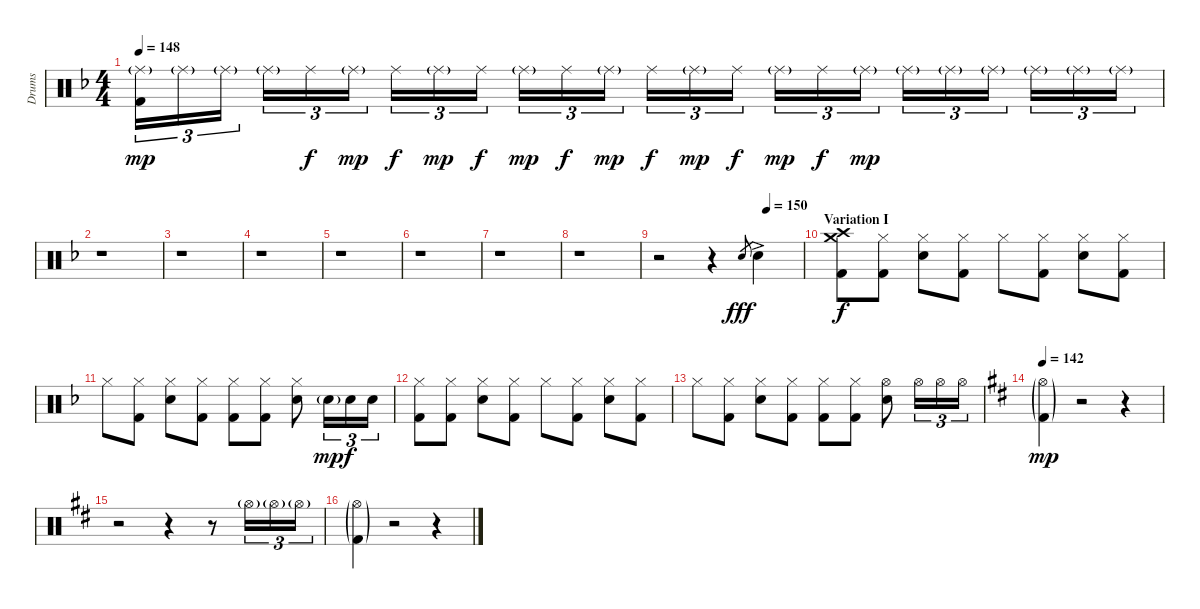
\track ("Drums" "Drums") {instrument percussion}
\staff {score}
\articulation defaults
\ts (4 4)
\tempo 148
\clef neutral
\ks dminor
("Ride (middle)"{g} "Kick (hit) 2").16{tu (3 2) dy mp} "Ride (middle)"{g}.16{tu (3 2)} "Ride (middle)"{g}.16{tu (3 2)} "Ride (middle)"{g}.16{tu (3 2)} "Ride (middle)".16{tu (3 2) dy f} "Ride (middle)"{g}.16{tu (3 2) dy mp} "Ride (middle)".16{tu (3 2) dy f} "Ride (middle)"{g}.16{tu (3 2) dy mp} "Ride (middle)".16{tu (3 2) dy f} "Ride (middle)"{g}.16{tu (3 2) dy mp} "Ride (middle)".16{tu (3 2) dy f} "Ride (middle)"{g}.16{tu (3 2) dy mp} "Ride (middle)".16{tu (3 2) dy f} "Ride (middle)"{g}.16{tu (3 2) dy mp} "Ride (middle)".16{tu (3 2) dy f} "Ride (middle)"{g}.16{tu (3 2) dy mp} "Ride (middle)".16{tu (3 2) dy f} "Ride (middle)"{g}.16{tu (3 2) dy mp} "Ride (middle)"{g}.16{tu (3 2)} "Ride (middle)"{g}.16{tu (3 2)} "Ride (middle)"{g}.16{tu (3 2)} "Ride (middle)"{g}.16{tu (3 2)} "Ride (middle)"{g}.16{tu (3 2)} "Ride (middle)"{g}.16{tu (3 2)} |
r.1 |
r.1 |
r.1 |
r.1 |
r.1 |
r.1 |
r.1 |
\tempo (150 0.75)
r.2{volume 14} r.4 "Snare (hit) 2".8{gr dy fff} "Snare (hit) 2"{ac}.4 |
\section ("" "Variation I")
("Crash high (hit)" "Crash medium (hit)" "Kick (hit) 2").8{dy f} ("Hi-Hat (closed)" "Kick (hit) 2").8 ("Hi-Hat (closed)" "Snare (hit) 2").8 ("Hi-Hat (closed)" "Kick (hit) 2").8 "Hi-Hat (closed)".8 ("Hi-Hat (closed)" "Kick (hit) 2").8 ("Hi-Hat (closed)" "Snare (hit) 2").8 ("Hi-Hat (closed)" "Kick (hit) 2").8 |
"Hi-Hat (closed)".8 ("Hi-Hat (closed)" "Kick (hit) 2").8 ("Hi-Hat (closed)" "Snare (hit) 2").8 ("Hi-Hat (closed)" "Kick (hit) 2").8 ("Hi-Hat (closed)" "Kick (hit) 2").8 ("Hi-Hat (closed)" "Kick (hit) 2").8 ("Hi-Hat (closed)" "Snare (hit) 2").8 "Snare (hit) 2"{g}.16{tu (3 2) dy mp} "Snare (hit) 2".16{tu (3 2) dy f} "Snare (hit) 2".16{tu (3 2)} |
("Hi-Hat (closed)" "Kick (hit) 2").8 ("Hi-Hat (closed)" "Kick (hit) 2").8 ("Hi-Hat (closed)" "Snare (hit) 2").8 ("Hi-Hat (closed)" "Kick (hit) 2").8 "Hi-Hat (closed)".8 ("Hi-Hat (closed)" "Kick (hit) 2").8 ("Hi-Hat (closed)" "Snare (hit) 2").8 ("Hi-Hat (closed)" "Kick (hit) 2").8 |
"Hi-Hat (closed)".8 ("Hi-Hat (closed)" "Kick (hit) 2").8 ("Hi-Hat (closed)" "Snare (hit) 2").8 ("Hi-Hat (closed)" "Kick (hit) 2").8 ("Hi-Hat (closed)" "Kick (hit) 2").8 ("Hi-Hat (closed)" "Kick (hit) 2").8 ("Hi-Hat (open)" "Snare (hit) 2").8 "Hi-Hat (open)".16{tu (3 2)} "Hi-Hat (open)".16{tu (3 2)} "Hi-Hat (open)".16{tu (3 2)} |
\tempo 142
\ks d
("Hi-Hat (open)"{g} "Kick (hit) 2"{g}).4{dy mp} r.2 r.4 |
r.2 r.4 r.8 "Hi-Hat (open)"{g}.16{tu (3 2)} "Hi-Hat (open)"{g}.16{tu (3 2)} "Hi-Hat (open)"{g}.16{tu (3 2)} |
("Hi-Hat (open)"{g} "Kick (hit) 2"{g}).4 r.2 r.4
